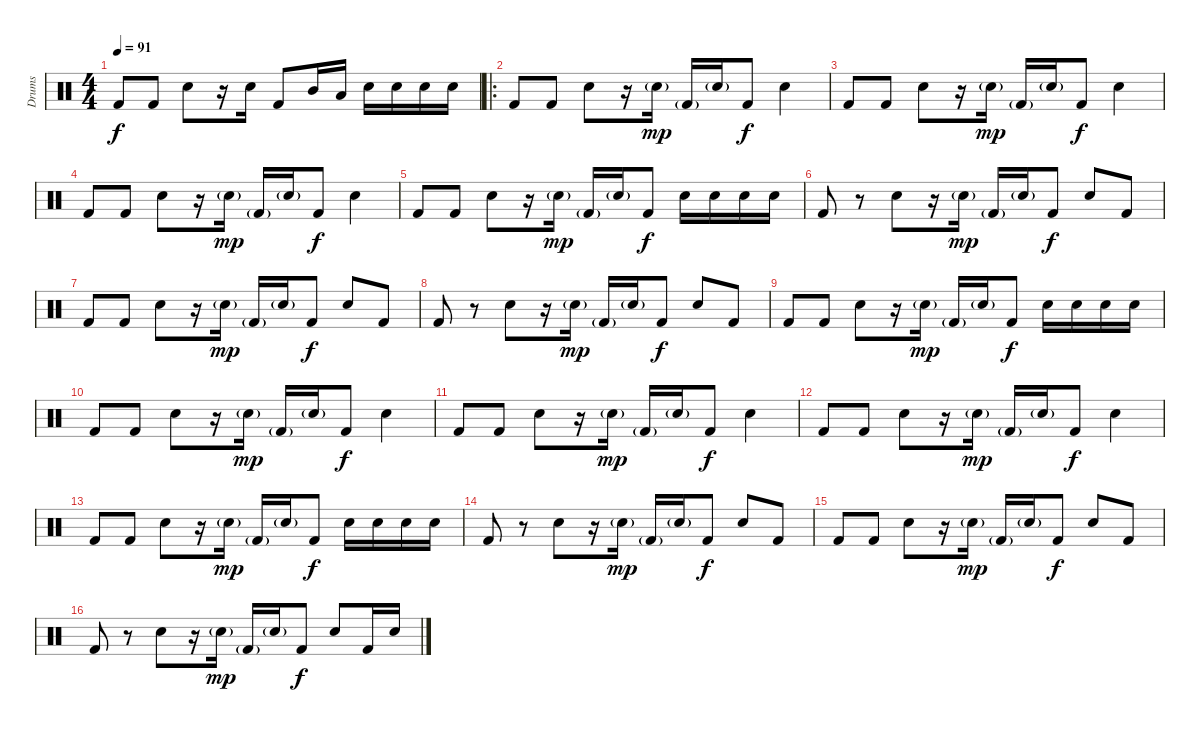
\track ("Drums" "Drums") {instrument percussion}
\staff {score}
\articulation defaults
\ts (4 4)
\tempo 91
\clef neutral
\ks c "Kick (hit) 2".8{dy f} "Kick (hit) 2".8 "Snare (hit) 2".8
r.16 "Snare (hit) 2".16 "Kick (hit) 2".8 "Mid Tom (hit)".16 "Low Tom (hit)".16 "Snare (hit) 2".16 "Snare (hit) 2".16 "Snare (hit) 2".16 "Snare (hit) 2".16 |
\ro "Kick (hit) 2".8 "Kick (hit) 2".8 "Snare (hit) 2".8
r.16 "Snare (hit) 2"{g}.16{dy mp} "Kick (hit) 2"{g}.16 "Snare (hit) 2"{g}.16 "Kick (hit) 2".8{dy f} "Snare (hit) 2".4 |
"Kick (hit) 2".8 "Kick (hit) 2".8 "Snare (hit) 2".8 r.16 "Snare (hit) 2"{g}.16{dy mp} "Kick (hit) 2"{g}.16 "Snare (hit) 2"{g}.16 "Kick (hit) 2".8{dy f} "Snare (hit) 2".4 |
"Kick (hit) 2".8 "Kick (hit) 2".8 "Snare (hit) 2".8 r.16 "Snare (hit) 2"{g}.16{dy mp} "Kick (hit) 2"{g}.16 "Snare (hit) 2"{g}.16 "Kick (hit) 2".8{dy f} "Snare (hit) 2".4 |
"Kick (hit) 2".8 "Kick (hit) 2".8 "Snare (hit) 2".8 r.16 "Snare (hit) 2"{g}.16{dy mp} "Kick (hit) 2"{g}.16 "Snare (hit) 2"{g}.16 "Kick (hit) 2".8{dy f} "Snare (hit) 2".16 "Snare (hit) 2".16 "Snare (hit) 2".16 "Snare (hit) 2".16 |
"Kick (hit) 2".8 r.8 "Snare (hit) 2".8 r.16 "Snare (hit) 2"{g}.16{dy mp} "Kick (hit) 2"{g}.16 "Snare (hit) 2"{g}.16 "Kick (hit) 2".8{dy f} "Snare (hit) 2".8 "Kick (hit) 2".8 |
"Kick (hit) 2".8 "Kick (hit) 2".8 "Snare (hit) 2".8 r.16 "Snare (hit) 2"{g}.16{dy mp} "Kick (hit) 2"{g}.16 "Snare (hit) 2"{g}.16 "Kick (hit) 2".8{dy f} "Snare (hit) 2".8 "Kick (hit) 2".8 |
"Kick (hit) 2".8 r.8 "Snare (hit) 2".8 r.16 "Snare (hit) 2"{g}.16{dy mp} "Kick (hit) 2"{g}.16 "Snare (hit) 2"{g}.16 "Kick (hit) 2".8{dy f} "Snare (hit) 2".8 "Kick (hit) 2".8 |
"Kick (hit) 2".8 "Kick (hit) 2".8 "Snare (hit) 2".8 r.16 "Snare (hit) 2"{g}.16{dy mp} "Kick (hit) 2"{g}.16 "Snare (hit) 2"{g}.16 "Kick (hit) 2".8{dy f} "Snare (hit) 2".16 "Snare (hit) 2".16 "Snare (hit) 2".16 "Snare (hit) 2".16 |
"Kick (hit) 2".8 "Kick (hit) 2".8 "Snare (hit) 2".8 r.16 "Snare (hit) 2"{g}.16{dy mp} "Kick (hit) 2"{g}.16 "Snare (hit) 2"{g}.16 "Kick (hit) 2".8{dy f} "Snare (hit) 2".4 |
"Kick (hit) 2".8 "Kick (hit) 2".8 "Snare (hit) 2".8 r.16 "Snare (hit) 2"{g}.16{dy mp} "Kick (hit) 2"{g}.16 "Snare (hit) 2"{g}.16 "Kick (hit) 2".8{dy f} "Snare (hit) 2".4 |
"Kick (hit) 2".8 "Kick (hit) 2".8 "Snare (hit) 2".8 r.16 "Snare (hit) 2"{g}.16{dy mp} "Kick (hit) 2"{g}.16 "Snare (hit) 2"{g}.16 "Kick (hit) 2".8{dy f} "Snare (hit) 2".4 |
"Kick (hit) 2".8 "Kick (hit) 2".8 "Snare (hit) 2".8 r.16 "Snare (hit) 2"{g}.16{dy mp} "Kick (hit) 2"{g}.16 "Snare (hit) 2"{g}.16 "Kick (hit) 2".8{dy f} "Snare (hit) 2".16 "Snare (hit) 2".16 "Snare (hit) 2".16 "Snare (hit) 2".16 |
"Kick (hit) 2".8 r.8 "Snare (hit) 2".8 r.16 "Snare (hit) 2"{g}.16{dy mp} "Kick (hit) 2"{g}.16 "Snare (hit) 2"{g}.16 "Kick (hit) 2".8{dy f} "Snare (hit) 2".8 "Kick (hit) 2".8 |
"Kick (hit) 2".8 "Kick (hit) 2".8 "Snare (hit) 2".8 r.16 "Snare (hit) 2"{g}.16{dy mp} "Kick (hit) 2"{g}.16 "Snare (hit) 2"{g}.16 "Kick (hit) 2".8{dy f} "Snare (hit) 2".8 "Kick (hit) 2".8 |
"Kick (hit) 2".8 r.8 "Snare (hit) 2".8 r.16 "Snare (hit) 2"{g}.16{dy mp} "Kick (hit) 2"{g}.16 "Snare (hit) 2"{g}.16 "Kick (hit) 2".8{dy f} "Snare (hit) 2".8 "Kick (hit) 2".16 "Snare (hit) 2".16
